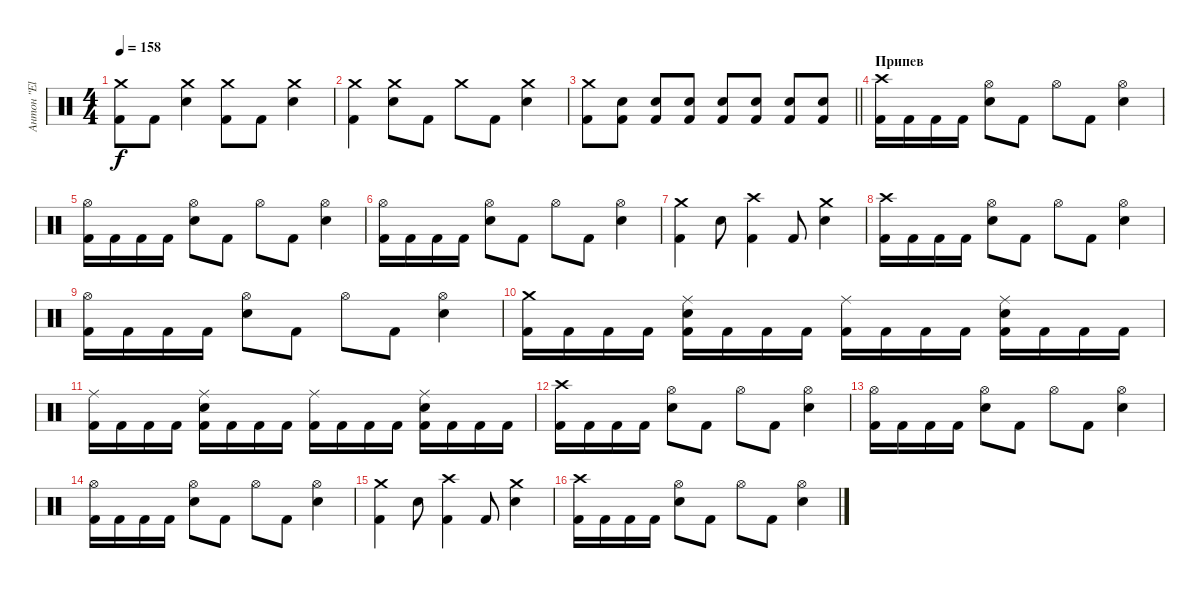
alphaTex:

\track ("Антон \"El Bastardo\" Смольянин" "Антон \"El ") {instrument percussion}
\staff {score}
\articulation defaults
\ts (4 4)
\tempo 158
\clef neutral
\ks c
("Crash medium (hit)" "Kick (hit) 2").8{dy f} "Kick (hit) 2".8 ("Crash medium (hit)" "Electric Snare (hit)").4 ("Crash medium (hit)" "Kick (hit) 2").8 "Kick (hit) 2".8 ("Crash medium (hit)" "Electric Snare (hit)").4 |
("Crash medium (hit)" "Kick (hit) 2").4 ("Crash medium (hit)" "Electric Snare (hit)").8 "Kick (hit) 2".8 "Crash medium (hit)".8 "Kick (hit) 2".8 ("Crash medium (hit)" "Electric Snare (hit)").4 |
\barLineRight lightlight
("Crash medium (hit)" "Kick (hit) 2").8 ("Electric Snare (hit)" "Kick (hit) 2").8 ("Electric Snare (hit)" "Kick (hit) 2").8 ("Electric Snare (hit)" "Kick (hit) 2").8 ("Electric Snare (hit)" "Kick (hit) 2").8 ("Electric Snare (hit)" "Kick (hit) 2").8 ("Electric Snare (hit)" "Kick (hit) 2").8 ("Electric Snare (hit)" "Kick (hit) 2").8 |
\section ("" "Припев")
("Crash high (hit)" "Kick (hit) 2").16 "Kick (hit) 2".16 "Kick (hit) 2".16 "Kick (hit) 2".16 ("Hi-Hat (open)" "Electric Snare (hit)").8 "Kick (hit) 2".8 "Hi-Hat (open)".8 "Kick (hit) 2".8 ("Hi-Hat (open)" "Electric Snare (hit)").4 |
("Hi-Hat (open)" "Kick (hit) 2").16 "Kick (hit) 2".16 "Kick (hit) 2".16 "Kick (hit) 2".16 ("Hi-Hat (open)" "Electric Snare (hit)").8 "Kick (hit) 2".8 "Hi-Hat (open)".8 "Kick (hit) 2".8 ("Hi-Hat (open)" "Electric Snare (hit)").4 |
("Hi-Hat (open)" "Kick (hit) 2").16 "Kick (hit) 2".16 "Kick (hit) 2".16 "Kick (hit) 2".16 ("Hi-Hat (open)" "Electric Snare (hit)").8 "Kick (hit) 2".8 "Hi-Hat (open)".8 "Kick (hit) 2".8 ("Hi-Hat (open)" "Electric Snare (hit)").4 |
("Crash medium (hit)" "Kick (hit) 2").4 "Electric Snare (hit)".8 ("Crash high (hit)" "Kick (hit) 2").4 "Kick (hit) 2".8 ("Crash medium (hit)" "Electric Snare (hit)").4 |
("Crash high (hit)" "Kick (hit) 2").16 "Kick (hit) 2".16 "Kick (hit) 2".16 "Kick (hit) 2".16 ("Hi-Hat (open)" "Electric Snare (hit)").8 "Kick (hit) 2".8 "Hi-Hat (open)".8 "Kick (hit) 2".8 ("Hi-Hat (open)" "Electric Snare (hit)").4 |
("Hi-Hat (open)" "Kick (hit) 2").16 "Kick (hit) 2".16 "Kick (hit) 2".16 "Kick (hit) 2".16 ("Hi-Hat (open)" "Electric Snare (hit)").8 "Kick (hit) 2".8 "Hi-Hat (open)".8 "Kick (hit) 2".8 ("Hi-Hat (open)" "Electric Snare (hit)").4 |
("Crash medium (hit)" "Kick (hit) 2").16 "Kick (hit) 2".16 "Kick (hit) 2".16 "Kick (hit) 2".16 ("Ride (middle)" "Electric Snare (hit)" "Kick (hit) 2").16 "Kick (hit) 2".16 "Kick (hit) 2".16 "Kick (hit) 2".16 ("Ride (middle)" "Kick (hit) 2").16 "Kick (hit) 2".16 "Kick (hit) 2".16 "Kick (hit) 2".16 ("Ride (middle)" "Electric Snare (hit)" "Kick (hit) 2").16 "Kick (hit) 2".16 "Kick (hit) 2".16 "Kick (hit) 2".16 |
("Ride (middle)" "Kick (hit) 2").16 "Kick (hit) 2".16 "Kick (hit) 2".16 "Kick (hit) 2".16 ("Ride (middle)" "Electric Snare (hit)" "Kick (hit) 2").16 "Kick (hit) 2".16 "Kick (hit) 2".16 "Kick (hit) 2".16 ("Ride (middle)" "Kick (hit) 2").16 "Kick (hit) 2".16 "Kick (hit) 2".16 "Kick (hit) 2".16 ("Ride (middle)" "Electric Snare (hit)" "Kick (hit) 2").16 "Kick (hit) 2".16 "Kick (hit) 2".16 "Kick (hit) 2".16 |
("Crash high (hit)" "Kick (hit) 2").16 "Kick (hit) 2".16 "Kick (hit) 2".16 "Kick (hit) 2".16 ("Hi-Hat (open)" "Electric Snare (hit)").8 "Kick (hit) 2".8 "Hi-Hat (open)".8 "Kick (hit) 2".8 ("Hi-Hat (open)" "Electric Snare (hit)").4 |
("Hi-Hat (open)" "Kick (hit) 2").16 "Kick (hit) 2".16 "Kick (hit) 2".16 "Kick (hit) 2".16 ("Hi-Hat (open)" "Electric Snare (hit)").8 "Kick (hit) 2".8 "Hi-Hat (open)".8 "Kick (hit) 2".8 ("Hi-Hat (open)" "Electric Snare (hit)").4 |
("Hi-Hat (open)" "Kick (hit) 2").16 "Kick (hit) 2".16 "Kick (hit) 2".16 "Kick (hit) 2".16 ("Hi-Hat (open)" "Electric Snare (hit)").8 "Kick (hit) 2".8 "Hi-Hat (open)".8 "Kick (hit) 2".8 ("Hi-Hat (open)" "Electric Snare (hit)").4 |
("Crash medium (hit)" "Kick (hit) 2").4 "Electric Snare (hit)".8 ("Crash high (hit)" "Kick (hit) 2").4 "Kick (hit) 2".8 ("Crash medium (hit)" "Electric Snare (hit)").4 |
("Crash high (hit)" "Kick (hit) 2").16 "Kick (hit) 2".16 "Kick (hit) 2".16 "Kick (hit) 2".16 ("Hi-Hat (open)" "Electric Snare (hit)").8 "Kick (hit) 2".8 "Hi-Hat (open)".8 "Kick (hit) 2".8 ("Hi-Hat (open)" "Electric Snare (hit)").4
